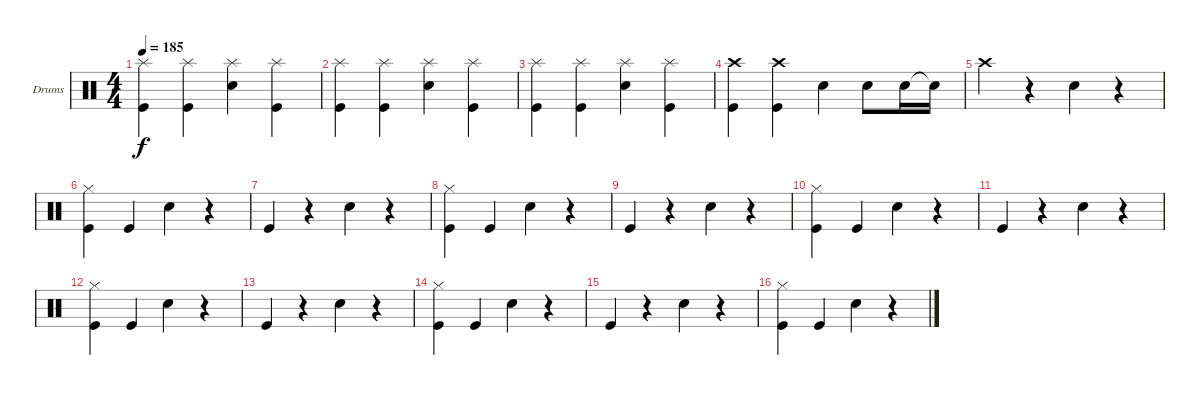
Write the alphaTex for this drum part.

\defaultSystemsLayout 4
\bracketExtendMode groupsimilarinstruments
\firstSystemTrackNameOrientation horizontal
\otherSystemsTrackNameOrientation horizontal
\track ("Chuck Comeau" "Drums") {instrument percussion}
\staff {score}
\articulation defaults
\ts (4 4)
\tempo 185
\clef neutral
\scale
0.333333
\ks c
("Splash (hit)" "Kick (hit)").4{dy f} ("Splash (hit)" "Kick (hit)").4 ("Splash (hit)" "Snare (hit) 2").4 ("Splash (hit)" "Kick (hit)").4 |
\scale
0.333333 ("Splash (hit)" "Kick (hit)").4 ("Splash (hit)" "Kick (hit)").4 ("Splash (hit)" "Snare (hit) 2").4 ("Splash (hit)" "Kick (hit)").4 |
\scale
0.333333 ("Splash (hit)" "Kick (hit)").4 ("Splash (hit)" "Kick (hit)").4 ("Splash (hit)" "Snare (hit) 2").4 ("Splash (hit)" "Kick (hit)").4 |
\scale
0.333333 ("Crash high (hit)" "Kick (hit)").4 ("Crash high (hit)" "Kick (hit)").4 "Snare (hit) 2".4 "Snare (hit) 2".8 "Snare (hit) 2".16 "Snare (hit) 2"{t}.16 |
\scale
0.333333 "Crash high (hit)".4 r.4 "Snare (hit) 2".4 r.4 |
\scale
0.333333 ("Hi-Hat (closed)" "Kick (hit)").4 "Kick (hit)".4 "Snare (hit) 2".4 r.4 |
\scale
0.333333 "Kick (hit)".4 r.4 "Snare (hit) 2".4 r.4 |
\scale
0.333333 ("Hi-Hat (closed)" "Kick (hit)").4 "Kick (hit)".4 "Snare (hit) 2".4 r.4 |
\scale
0.333333 "Kick (hit)".4 r.4 "Snare (hit) 2".4 r.4 |
\scale
0.333333 ("Hi-Hat (closed)" "Kick (hit)").4 "Kick (hit)".4 "Snare (hit) 2".4 r.4 |
\scale
0.333333 "Kick (hit)".4 r.4 "Snare (hit) 2".4 r.4 |
\scale
0.333333 ("Hi-Hat (closed)" "Kick (hit)").4 "Kick (hit)".4 "Snare (hit) 2".4 r.4 |
\scale
0.333333 "Kick (hit)".4 r.4 "Snare (hit) 2".4 r.4 |
\scale
0.333333 ("Hi-Hat (closed)" "Kick (hit)").4 "Kick (hit)".4 "Snare (hit) 2".4 r.4 |
\scale
0.333333 "Kick (hit)".4 r.4 "Snare (hit) 2".4 r.4 |
\scale
0.333333 ("Hi-Hat (closed)" "Kick (hit)").4 "Kick (hit)".4 "Snare (hit) 2".4 r.4
